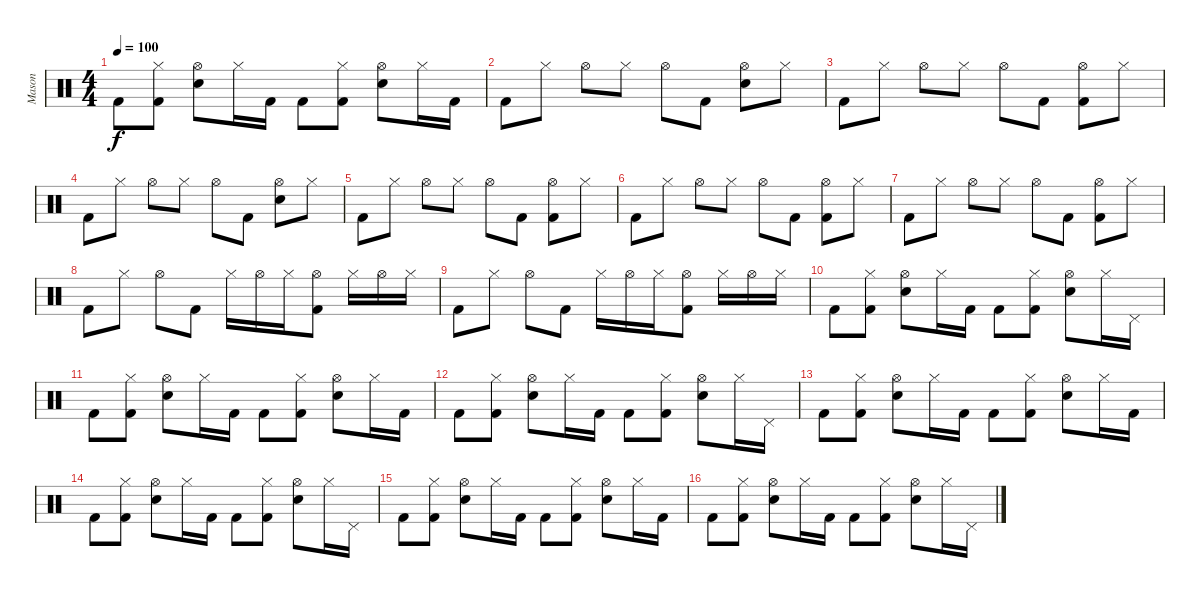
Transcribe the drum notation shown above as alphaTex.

\track ("Mason" "Mason") {instrument percussion}
\staff {score}
\articulation defaults
\ts (4 4)
\tempo 100
\clef neutral
\ks c "Kick (hit) 2".8{dy f}
("Hi-Hat (closed)" "Kick (hit) 2").8 ("Hand Clap (hit)" "Hi-Hat (open)").8 "Hi-Hat (closed)".16 "Kick (hit) 2".16 "Kick (hit) 2".8 ("Hi-Hat (closed)" "Kick (hit) 2").8 ("Hand Clap (hit)" "Hi-Hat (open)").8 "Hi-Hat (closed)".16 "Kick (hit) 2".16 |
"Kick (hit) 2".8 "Hi-Hat (closed)".8 "Hi-Hat (open)".8 "Hi-Hat (closed)".8 "Hi-Hat (open)".8 "Kick (hit) 2".8 ("Hand Clap (hit)" "Hi-Hat (open)").8 "Hi-Hat (closed)".8 |
"Kick (hit) 2".8 "Hi-Hat (closed)".8 "Hi-Hat (open)".8 "Hi-Hat (closed)".8 "Hi-Hat (open)".8 "Kick (hit) 2".8 ("Kick (hit) 2" "Hi-Hat (open)").8 "Hi-Hat (closed)".8 |
"Kick (hit) 2".8 "Hi-Hat (closed)".8 "Hi-Hat (open)".8 "Hi-Hat (closed)".8 "Hi-Hat (open)".8 "Kick (hit) 2".8 ("Hand Clap (hit)" "Hi-Hat (open)").8 "Hi-Hat (closed)".8 |
"Kick (hit) 2".8 "Hi-Hat (closed)".8 "Hi-Hat (open)".8 "Hi-Hat (closed)".8 "Hi-Hat (open)".8 "Kick (hit) 2".8 ("Kick (hit) 2" "Hi-Hat (open)").8 "Hi-Hat (closed)".8 |
"Kick (hit) 2".8 "Hi-Hat (closed)".8 "Hi-Hat (open)".8 "Hi-Hat (closed)".8 "Hi-Hat (open)".8 "Kick (hit) 2".8 ("Kick (hit) 2" "Hi-Hat (open)").8 "Hi-Hat (closed)".8 |
"Kick (hit) 2".8 "Hi-Hat (closed)".8 "Hi-Hat (open)".8 "Hi-Hat (closed)".8 "Hi-Hat (open)".8 "Kick (hit) 2".8 ("Kick (hit) 2" "Hi-Hat (open)").8 "Hi-Hat (closed)".8 |
"Kick (hit) 2".8 "Hi-Hat (closed)".8 "Hi-Hat (open)".8 "Kick (hit) 2".8 "Hi-Hat (closed)".16 "Hi-Hat (open)".16 "Hi-Hat (closed)".16 ("Hi-Hat (open)" "Kick (hit) 2").8 "Hi-Hat (closed)".16 "Hi-Hat (open)".16 "Hi-Hat (closed)".16 |
"Kick (hit) 2".8 "Hi-Hat (closed)".8 "Hi-Hat (open)".8 "Kick (hit) 2".8 "Hi-Hat (closed)".16 "Hi-Hat (open)".16 "Hi-Hat (closed)".16 ("Hi-Hat (open)" "Kick (hit) 2").8 "Hi-Hat (closed)".16 "Hi-Hat (open)".16 "Hi-Hat (closed)".16 |
"Kick (hit) 2".8 ("Hi-Hat (closed)" "Kick (hit) 2").8 ("Hand Clap (hit)" "Hi-Hat (open)").8 "Hi-Hat (closed)".16 "Kick (hit) 2".16 "Kick (hit) 2".8 ("Hi-Hat (closed)" "Kick (hit) 2").8 ("Hand Clap (hit)" "Hi-Hat (open)").8 "Hi-Hat (closed)".16 "Pedal Hi-Hat (hit)".16 |
"Kick (hit) 2".8 ("Hi-Hat (closed)" "Kick (hit) 2").8 ("Hand Clap (hit)" "Hi-Hat (open)").8 "Hi-Hat (closed)".16 "Kick (hit) 2".16 "Kick (hit) 2".8 ("Hi-Hat (closed)" "Kick (hit) 2").8 ("Hand Clap (hit)" "Hi-Hat (open)").8 "Hi-Hat (closed)".16 "Kick (hit) 2".16 |
"Kick (hit) 2".8 ("Hi-Hat (closed)" "Kick (hit) 2").8 ("Hand Clap (hit)" "Hi-Hat (open)").8 "Hi-Hat (closed)".16 "Kick (hit) 2".16 "Kick (hit) 2".8 ("Hi-Hat (closed)" "Kick (hit) 2").8 ("Hand Clap (hit)" "Hi-Hat (open)").8 "Hi-Hat (closed)".16 "Pedal Hi-Hat (hit)".16 |
"Kick (hit) 2".8 ("Hi-Hat (closed)" "Kick (hit) 2").8 ("Hand Clap (hit)" "Hi-Hat (open)").8 "Hi-Hat (closed)".16 "Kick (hit) 2".16 "Kick (hit) 2".8 ("Hi-Hat (closed)" "Kick (hit) 2").8 ("Hand Clap (hit)" "Hi-Hat (open)").8 "Hi-Hat (closed)".16 "Kick (hit) 2".16 |
"Kick (hit) 2".8 ("Hi-Hat (closed)" "Kick (hit) 2").8 ("Hand Clap (hit)" "Hi-Hat (open)").8 "Hi-Hat (closed)".16 "Kick (hit) 2".16 "Kick (hit) 2".8 ("Hi-Hat (closed)" "Kick (hit) 2").8 ("Hand Clap (hit)" "Hi-Hat (open)").8 "Hi-Hat (closed)".16 "Pedal Hi-Hat (hit)".16 |
"Kick (hit) 2".8 ("Hi-Hat (closed)" "Kick (hit) 2").8 ("Hand Clap (hit)" "Hi-Hat (open)").8 "Hi-Hat (closed)".16 "Kick (hit) 2".16 "Kick (hit) 2".8 ("Hi-Hat (closed)" "Kick (hit) 2").8 ("Hand Clap (hit)" "Hi-Hat (open)").8 "Hi-Hat (closed)".16 "Kick (hit) 2".16 |
"Kick (hit) 2".8 ("Hi-Hat (closed)" "Kick (hit) 2").8 ("Hand Clap (hit)" "Hi-Hat (open)").8 "Hi-Hat (closed)".16 "Kick (hit) 2".16 "Kick (hit) 2".8 ("Hi-Hat (closed)" "Kick (hit) 2").8 ("Hand Clap (hit)" "Hi-Hat (open)").8 "Hi-Hat (closed)".16 "Pedal Hi-Hat (hit)".16
